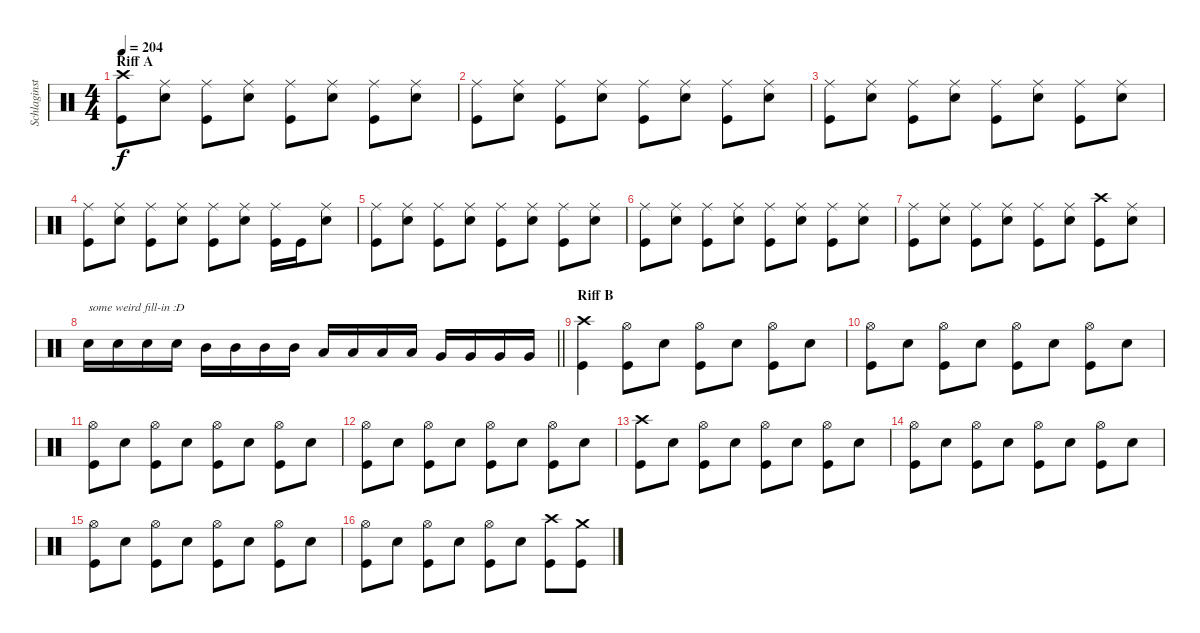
\track ("Schlaginstrumente - Auswahl" "Schlaginst") {instrument percussion}
\staff {score}
\articulation defaults
\ts (4 4)
\section ("" "Riff A")
\tempo 204
\clef neutral
\ks c
("Kick (hit)" "Crash high (hit)").8{dy f} ("Snare (hit) 2" "Ride (middle)").8 ("Kick (hit)" "Ride (middle)").8 ("Snare (hit) 2" "Ride (middle)").8 ("Kick (hit)" "Ride (middle)").8 ("Snare (hit) 2" "Ride (middle)").8 ("Kick (hit)" "Ride (middle)").8 ("Snare (hit) 2" "Ride (middle)").8 |
("Kick (hit)" "Ride (middle)").8 ("Snare (hit) 2" "Ride (middle)").8 ("Kick (hit)" "Ride (middle)").8 ("Snare (hit) 2" "Ride (middle)").8 ("Kick (hit)" "Ride (middle)").8 ("Snare (hit) 2" "Ride (middle)").8 ("Kick (hit)" "Ride (middle)").8 ("Snare (hit) 2" "Ride (middle)").8 |
("Kick (hit)" "Ride (middle)").8 ("Snare (hit) 2" "Ride (middle)").8 ("Kick (hit)" "Ride (middle)").8 ("Snare (hit) 2" "Ride (middle)").8 ("Kick (hit)" "Ride (middle)").8 ("Snare (hit) 2" "Ride (middle)").8 ("Kick (hit)" "Ride (middle)").8 ("Snare (hit) 2" "Ride (middle)").8 |
("Kick (hit)" "Ride (middle)").8 ("Snare (hit) 2" "Ride (middle)").8 ("Kick (hit)" "Ride (middle)").8 ("Snare (hit) 2" "Ride (middle)").8 ("Kick (hit)" "Ride (middle)").8 ("Snare (hit) 2" "Ride (middle)").8 ("Kick (hit)" "Ride (middle)").16 "Kick (hit)".16 ("Snare (hit) 2" "Ride (middle)").8 |
("Kick (hit)" "Ride (middle)").8 ("Snare (hit) 2" "Ride (middle)").8 ("Kick (hit)" "Ride (middle)").8 ("Snare (hit) 2" "Ride (middle)").8 ("Kick (hit)" "Ride (middle)").8 ("Snare (hit) 2" "Ride (middle)").8 ("Kick (hit)" "Ride (middle)").8 ("Snare (hit) 2" "Ride (middle)").8 |
("Kick (hit)" "Ride (middle)").8 ("Snare (hit) 2" "Ride (middle)").8 ("Kick (hit)" "Ride (middle)").8 ("Snare (hit) 2" "Ride (middle)").8 ("Kick (hit)" "Ride (middle)").8 ("Snare (hit) 2" "Ride (middle)").8 ("Kick (hit)" "Ride (middle)").8 ("Snare (hit) 2" "Ride (middle)").8 |
("Kick (hit)" "Ride (middle)").8 ("Snare (hit) 2" "Ride (middle)").8 ("Kick (hit)" "Ride (middle)").8 ("Snare (hit) 2" "Ride (middle)").8 ("Kick (hit)" "Ride (middle)").8 ("Snare (hit) 2" "Ride (middle)").8 ("Kick (hit)" "Crash high (hit)").8 ("Snare (hit) 2" "Ride (middle)").8 |
\barLineRight lightlight "Snare (hit) 2".16{txt "some weird fill-in :D"} "Snare (hit) 2".16 "Snare (hit) 2".16 "Snare (hit) 2".16 "Mid Tom (hit)".16 "Mid Tom (hit)".16 "Mid Tom (hit)".16 "Mid Tom (hit)".16 "Low Tom (hit)".16 "Low Tom (hit)".16 "Low Tom (hit)".16 "Low Tom (hit)".16 "Very Low Tom (hit)".16 "Very Low Tom (hit)".16 "Very Low Tom (hit)".16 "Very Low Tom (hit)".16
|
\section ("" "Riff B")
("Kick (hit)" "Crash high (hit)").4 ("Kick (hit)" "Hi-Hat (open)").8 "Snare (hit) 2".8 ("Kick (hit)" "Hi-Hat (open)").8 "Snare (hit) 2".8 ("Kick (hit)" "Hi-Hat (open)").8 "Snare (hit) 2".8 |
("Kick (hit)" "Hi-Hat (open)").8 "Snare (hit) 2".8 ("Kick (hit)" "Hi-Hat (open)").8 "Snare (hit) 2".8 ("Kick (hit)" "Hi-Hat (open)").8 "Snare (hit) 2".8 ("Kick (hit)" "Hi-Hat (open)").8 "Snare (hit) 2".8 |
("Kick (hit)" "Hi-Hat (open)").8 "Snare (hit) 2".8 ("Kick (hit)" "Hi-Hat (open)").8 "Snare (hit) 2".8 ("Kick (hit)" "Hi-Hat (open)").8 "Snare (hit) 2".8 ("Kick (hit)" "Hi-Hat (open)").8 "Snare (hit) 2".8 |
("Kick (hit)" "Hi-Hat (open)").8 "Snare (hit) 2".8 ("Kick (hit)" "Hi-Hat (open)").8 "Snare (hit) 2".8 ("Kick (hit)" "Hi-Hat (open)").8 "Snare (hit) 2".8 ("Kick (hit)" "Hi-Hat (open)").8 "Snare (hit) 2".8 |
("Kick (hit)" "Crash high (hit)").8 "Snare (hit) 2".8 ("Kick (hit)" "Hi-Hat (open)").8 "Snare (hit) 2".8 ("Kick (hit)" "Hi-Hat (open)").8 "Snare (hit) 2".8 ("Kick (hit)" "Hi-Hat (open)").8 "Snare (hit) 2".8 |
("Kick (hit)" "Hi-Hat (open)").8 "Snare (hit) 2".8 ("Kick (hit)" "Hi-Hat (open)").8 "Snare (hit) 2".8 ("Kick (hit)" "Hi-Hat (open)").8 "Snare (hit) 2".8 ("Kick (hit)" "Hi-Hat (open)").8 "Snare (hit) 2".8 |
("Kick (hit)" "Hi-Hat (open)").8 "Snare (hit) 2".8 ("Kick (hit)" "Hi-Hat (open)").8 "Snare (hit) 2".8 ("Kick (hit)" "Hi-Hat (open)").8 "Snare (hit) 2".8 ("Kick (hit)" "Hi-Hat (open)").8 "Snare (hit) 2".8 |
("Kick (hit)" "Hi-Hat (open)").8 "Snare (hit) 2".8 ("Kick (hit)" "Hi-Hat (open)").8 "Snare (hit) 2".8 ("Kick (hit)" "Hi-Hat (open)").8 "Snare (hit) 2".8 ("Kick (hit)" "Crash high (hit)").8 ("Kick (hit)" "Crash medium (hit)").8
